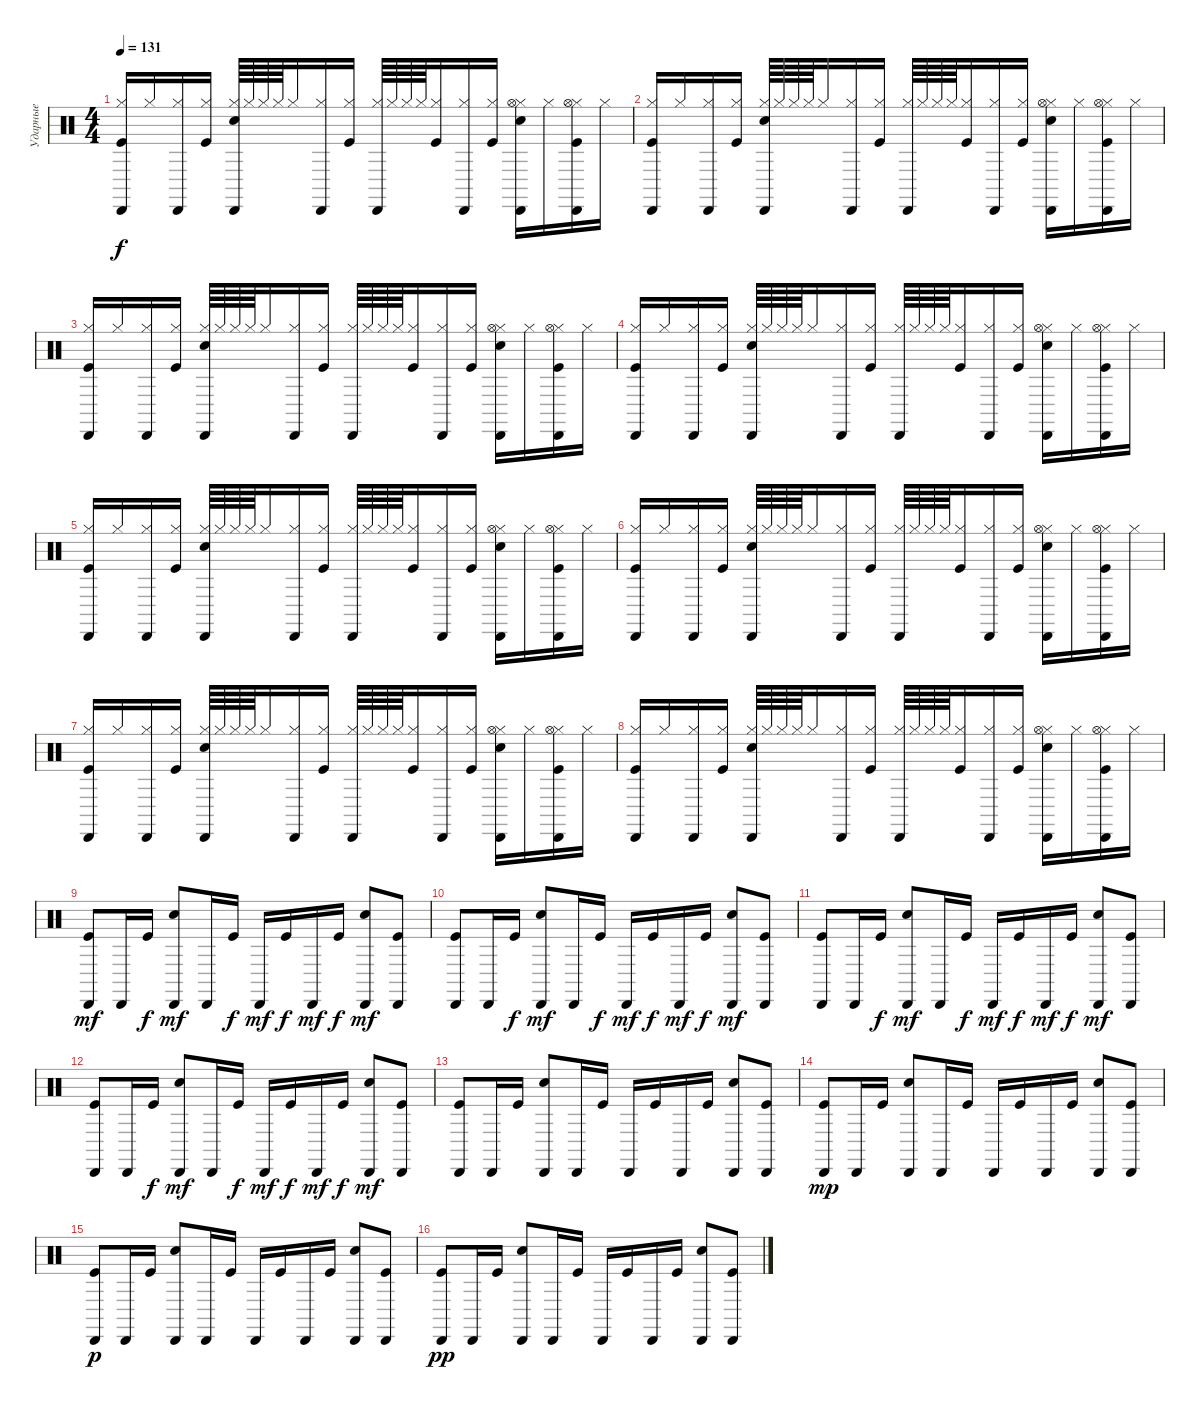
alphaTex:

\track ("Ударные" "Ударные") {instrument percussion}
\staff {score}
\articulation defaults
\ts (4 4)
\tempo 131
\clef neutral
\ks c
("Hi-Hat (closed)" "Kick (hit)" "Cabasa (hit)").16{dy f} "Hi-Hat (closed)".16 ("Hi-Hat (closed)" "Cabasa (hit)").16 ("Hi-Hat (closed)" "Kick (hit)").16 ("Hi-Hat (closed)" "Snare (hit) 2" "Cabasa (hit)").64 "Hi-Hat (closed)".64 "Hi-Hat (closed)".64 "Hi-Hat (closed)".64 "Hi-Hat (closed)".16 ("Hi-Hat (closed)" "Cabasa (hit)").16 ("Hi-Hat (closed)" "Kick (hit)").16 ("Hi-Hat (closed)" "Cabasa (hit)").64 "Hi-Hat (closed)".64 "Hi-Hat (closed)".64 "Hi-Hat (closed)".64 ("Hi-Hat (closed)" "Kick (hit)").16 ("Hi-Hat (closed)" "Cabasa (hit)").16 ("Hi-Hat (closed)" "Kick (hit)").16 ("Hi-Hat (closed)" "Hi-Hat (open)" "Snare (hit) 2" "Cabasa (hit)").16 "Hi-Hat (closed)".16 ("Hi-Hat (closed)" "Hi-Hat (open)" "Kick (hit)" "Cabasa (hit)").16 "Hi-Hat (closed)".16 |
("Hi-Hat (closed)" "Kick (hit)" "Cabasa (hit)").16 "Hi-Hat (closed)".16 ("Hi-Hat (closed)" "Cabasa (hit)").16 ("Hi-Hat (closed)" "Kick (hit)").16 ("Hi-Hat (closed)" "Snare (hit) 2" "Cabasa (hit)").64 "Hi-Hat (closed)".64 "Hi-Hat (closed)".64 "Hi-Hat (closed)".64 "Hi-Hat (closed)".16 ("Hi-Hat (closed)" "Cabasa (hit)").16 ("Hi-Hat (closed)" "Kick (hit)").16 ("Hi-Hat (closed)" "Cabasa (hit)").64 "Hi-Hat (closed)".64 "Hi-Hat (closed)".64 "Hi-Hat (closed)".64 ("Hi-Hat (closed)" "Kick (hit)").16 ("Hi-Hat (closed)" "Cabasa (hit)").16 ("Hi-Hat (closed)" "Kick (hit)").16 ("Hi-Hat (closed)" "Hi-Hat (open)" "Snare (hit) 2" "Cabasa (hit)").16 "Hi-Hat (closed)".16 ("Hi-Hat (closed)" "Hi-Hat (open)" "Kick (hit)" "Cabasa (hit)").16 "Hi-Hat (closed)".16 |
("Hi-Hat (closed)" "Kick (hit)" "Cabasa (hit)").16 "Hi-Hat (closed)".16 ("Hi-Hat (closed)" "Cabasa (hit)").16 ("Hi-Hat (closed)" "Kick (hit)").16 ("Hi-Hat (closed)" "Snare (hit) 2" "Cabasa (hit)").64 "Hi-Hat (closed)".64 "Hi-Hat (closed)".64 "Hi-Hat (closed)".64 "Hi-Hat (closed)".16 ("Hi-Hat (closed)" "Cabasa (hit)").16 ("Hi-Hat (closed)" "Kick (hit)").16 ("Hi-Hat (closed)" "Cabasa (hit)").64 "Hi-Hat (closed)".64 "Hi-Hat (closed)".64 "Hi-Hat (closed)".64 ("Hi-Hat (closed)" "Kick (hit)").16 ("Hi-Hat (closed)" "Cabasa (hit)").16 ("Hi-Hat (closed)" "Kick (hit)").16 ("Hi-Hat (closed)" "Hi-Hat (open)" "Snare (hit) 2" "Cabasa (hit)").16 "Hi-Hat (closed)".16 ("Hi-Hat (closed)" "Hi-Hat (open)" "Kick (hit)" "Cabasa (hit)").16 "Hi-Hat (closed)".16 |
("Hi-Hat (closed)" "Kick (hit)" "Cabasa (hit)").16 "Hi-Hat (closed)".16 ("Hi-Hat (closed)" "Cabasa (hit)").16 ("Hi-Hat (closed)" "Kick (hit)").16 ("Hi-Hat (closed)" "Snare (hit) 2" "Cabasa (hit)").64 "Hi-Hat (closed)".64 "Hi-Hat (closed)".64 "Hi-Hat (closed)".64 "Hi-Hat (closed)".16 ("Hi-Hat (closed)" "Cabasa (hit)").16 ("Hi-Hat (closed)" "Kick (hit)").16 ("Hi-Hat (closed)" "Cabasa (hit)").64 "Hi-Hat (closed)".64 "Hi-Hat (closed)".64 "Hi-Hat (closed)".64 ("Hi-Hat (closed)" "Kick (hit)").16 ("Hi-Hat (closed)" "Cabasa (hit)").16 ("Hi-Hat (closed)" "Kick (hit)").16 ("Hi-Hat (closed)" "Hi-Hat (open)" "Snare (hit) 2" "Cabasa (hit)").16 "Hi-Hat (closed)".16 ("Hi-Hat (closed)" "Hi-Hat (open)" "Kick (hit)" "Cabasa (hit)").16 "Hi-Hat (closed)".16 |
("Hi-Hat (closed)" "Kick (hit)" "Cabasa (hit)").16 "Hi-Hat (closed)".16 ("Hi-Hat (closed)" "Cabasa (hit)").16 ("Hi-Hat (closed)" "Kick (hit)").16 ("Hi-Hat (closed)" "Snare (hit) 2" "Cabasa (hit)").64 "Hi-Hat (closed)".64 "Hi-Hat (closed)".64 "Hi-Hat (closed)".64 "Hi-Hat (closed)".16 ("Hi-Hat (closed)" "Cabasa (hit)").16 ("Hi-Hat (closed)" "Kick (hit)").16 ("Hi-Hat (closed)" "Cabasa (hit)").64 "Hi-Hat (closed)".64 "Hi-Hat (closed)".64 "Hi-Hat (closed)".64 ("Hi-Hat (closed)" "Kick (hit)").16 ("Hi-Hat (closed)" "Cabasa (hit)").16 ("Hi-Hat (closed)" "Kick (hit)").16 ("Hi-Hat (closed)" "Hi-Hat (open)" "Snare (hit) 2" "Cabasa (hit)").16 "Hi-Hat (closed)".16 ("Hi-Hat (closed)" "Hi-Hat (open)" "Kick (hit)" "Cabasa (hit)").16 "Hi-Hat (closed)".16 |
("Hi-Hat (closed)" "Kick (hit)" "Cabasa (hit)").16 "Hi-Hat (closed)".16 ("Hi-Hat (closed)" "Cabasa (hit)").16 ("Hi-Hat (closed)" "Kick (hit)").16 ("Hi-Hat (closed)" "Snare (hit) 2" "Cabasa (hit)").64 "Hi-Hat (closed)".64 "Hi-Hat (closed)".64 "Hi-Hat (closed)".64 "Hi-Hat (closed)".16 ("Hi-Hat (closed)" "Cabasa (hit)").16 ("Hi-Hat (closed)" "Kick (hit)").16 ("Hi-Hat (closed)" "Cabasa (hit)").64 "Hi-Hat (closed)".64 "Hi-Hat (closed)".64 "Hi-Hat (closed)".64 ("Hi-Hat (closed)" "Kick (hit)").16 ("Hi-Hat (closed)" "Cabasa (hit)").16 ("Hi-Hat (closed)" "Kick (hit)").16 ("Hi-Hat (closed)" "Hi-Hat (open)" "Snare (hit) 2" "Cabasa (hit)").16 "Hi-Hat (closed)".16 ("Hi-Hat (closed)" "Hi-Hat (open)" "Kick (hit)" "Cabasa (hit)").16 "Hi-Hat (closed)".16 |
("Hi-Hat (closed)" "Kick (hit)" "Cabasa (hit)").16 "Hi-Hat (closed)".16 ("Hi-Hat (closed)" "Cabasa (hit)").16 ("Hi-Hat (closed)" "Kick (hit)").16 ("Hi-Hat (closed)" "Snare (hit) 2" "Cabasa (hit)").64 "Hi-Hat (closed)".64 "Hi-Hat (closed)".64 "Hi-Hat (closed)".64 "Hi-Hat (closed)".16 ("Hi-Hat (closed)" "Cabasa (hit)").16 ("Hi-Hat (closed)" "Kick (hit)").16 ("Hi-Hat (closed)" "Cabasa (hit)").64 "Hi-Hat (closed)".64 "Hi-Hat (closed)".64 "Hi-Hat (closed)".64 ("Hi-Hat (closed)" "Kick (hit)").16 ("Hi-Hat (closed)" "Cabasa (hit)").16 ("Hi-Hat (closed)" "Kick (hit)").16 ("Hi-Hat (closed)" "Hi-Hat (open)" "Snare (hit) 2" "Cabasa (hit)").16 "Hi-Hat (closed)".16 ("Hi-Hat (closed)" "Hi-Hat (open)" "Kick (hit)" "Cabasa (hit)").16 "Hi-Hat (closed)".16 |
("Hi-Hat (closed)" "Kick (hit)" "Cabasa (hit)").16 "Hi-Hat (closed)".16 ("Hi-Hat (closed)" "Cabasa (hit)").16 ("Hi-Hat (closed)" "Kick (hit)").16 ("Hi-Hat (closed)" "Snare (hit) 2" "Cabasa (hit)").64 "Hi-Hat (closed)".64 "Hi-Hat (closed)".64 "Hi-Hat (closed)".64 "Hi-Hat (closed)".16 ("Hi-Hat (closed)" "Cabasa (hit)").16 ("Hi-Hat (closed)" "Kick (hit)").16 ("Hi-Hat (closed)" "Cabasa (hit)").64 "Hi-Hat (closed)".64 "Hi-Hat (closed)".64 "Hi-Hat (closed)".64 ("Hi-Hat (closed)" "Kick (hit)").16 ("Hi-Hat (closed)" "Cabasa (hit)").16 ("Hi-Hat (closed)" "Kick (hit)").16 ("Hi-Hat (closed)" "Hi-Hat (open)" "Snare (hit) 2" "Cabasa (hit)").16 "Hi-Hat (closed)".16 ("Hi-Hat (closed)" "Hi-Hat (open)" "Kick (hit)" "Cabasa (hit)").16 "Hi-Hat (closed)".16 |
("Kick (hit)" "Cabasa (hit)").8{dy mf} "Cabasa (hit)".16 "Kick (hit)".16{dy f} ("Snare (hit) 2" "Cabasa (hit)").8{dy mf} "Cabasa (hit)".16 "Kick (hit)".16{dy f} "Cabasa (hit)".16{dy mf} "Kick (hit)".16{dy f} "Cabasa (hit)".16{dy mf} "Kick (hit)".16{dy f} ("Snare (hit) 2" "Cabasa (hit)").8{dy mf} ("Kick (hit)" "Cabasa (hit)").8 |
("Kick (hit)" "Cabasa (hit)").8 "Cabasa (hit)".16 "Kick (hit)".16{dy f} ("Snare (hit) 2" "Cabasa (hit)").8{dy mf} "Cabasa (hit)".16 "Kick (hit)".16{dy f} "Cabasa (hit)".16{dy mf} "Kick (hit)".16{dy f} "Cabasa (hit)".16{dy mf} "Kick (hit)".16{dy f} ("Snare (hit) 2" "Cabasa (hit)").8{dy mf} ("Kick (hit)" "Cabasa (hit)").8 |
("Kick (hit)" "Cabasa (hit)").8 "Cabasa (hit)".16 "Kick (hit)".16{dy f} ("Snare (hit) 2" "Cabasa (hit)").8{dy mf} "Cabasa (hit)".16 "Kick (hit)".16{dy f} "Cabasa (hit)".16{dy mf} "Kick (hit)".16{dy f} "Cabasa (hit)".16{dy mf} "Kick (hit)".16{dy f} ("Snare (hit) 2" "Cabasa (hit)").8{dy mf} ("Kick (hit)" "Cabasa (hit)").8 |
("Kick (hit)" "Cabasa (hit)").8 "Cabasa (hit)".16 "Kick (hit)".16{dy f} ("Snare (hit) 2" "Cabasa (hit)").8{dy mf} "Cabasa (hit)".16 "Kick (hit)".16{dy f} "Cabasa (hit)".16{dy mf} "Kick (hit)".16{dy f} "Cabasa (hit)".16{dy mf} "Kick (hit)".16{dy f} ("Snare (hit) 2" "Cabasa (hit)").8{dy mf} ("Kick (hit)" "Cabasa (hit)").8 |
("Kick (hit)" "Cabasa (hit)").8 "Cabasa (hit)".16 "Kick (hit)".16 ("Snare (hit) 2" "Cabasa (hit)").8 "Cabasa (hit)".16 "Kick (hit)".16 "Cabasa (hit)".16 "Kick (hit)".16 "Cabasa (hit)".16 "Kick (hit)".16 ("Snare (hit) 2" "Cabasa (hit)").8 ("Kick (hit)" "Cabasa (hit)").8 |
("Kick (hit)" "Cabasa (hit)").8{dy mp} "Cabasa (hit)".16 "Kick (hit)".16 ("Snare (hit) 2" "Cabasa (hit)").8 "Cabasa (hit)".16 "Kick (hit)".16 "Cabasa (hit)".16 "Kick (hit)".16 "Cabasa (hit)".16 "Kick (hit)".16 ("Snare (hit) 2" "Cabasa (hit)").8 ("Kick (hit)" "Cabasa (hit)").8 |
("Kick (hit)" "Cabasa (hit)").8{dy p} "Cabasa (hit)".16 "Kick (hit)".16 ("Snare (hit) 2" "Cabasa (hit)").8 "Cabasa (hit)".16 "Kick (hit)".16 "Cabasa (hit)".16 "Kick (hit)".16 "Cabasa (hit)".16 "Kick (hit)".16 ("Snare (hit) 2" "Cabasa (hit)").8 ("Kick (hit)" "Cabasa (hit)").8 |
("Kick (hit)" "Cabasa (hit)").8{dy pp} "Cabasa (hit)".16 "Kick (hit)".16 ("Snare (hit) 2" "Cabasa (hit)").8 "Cabasa (hit)".16 "Kick (hit)".16 "Cabasa (hit)".16 "Kick (hit)".16 "Cabasa (hit)".16 "Kick (hit)".16 ("Snare (hit) 2" "Cabasa (hit)").8 ("Kick (hit)" "Cabasa (hit)").8
